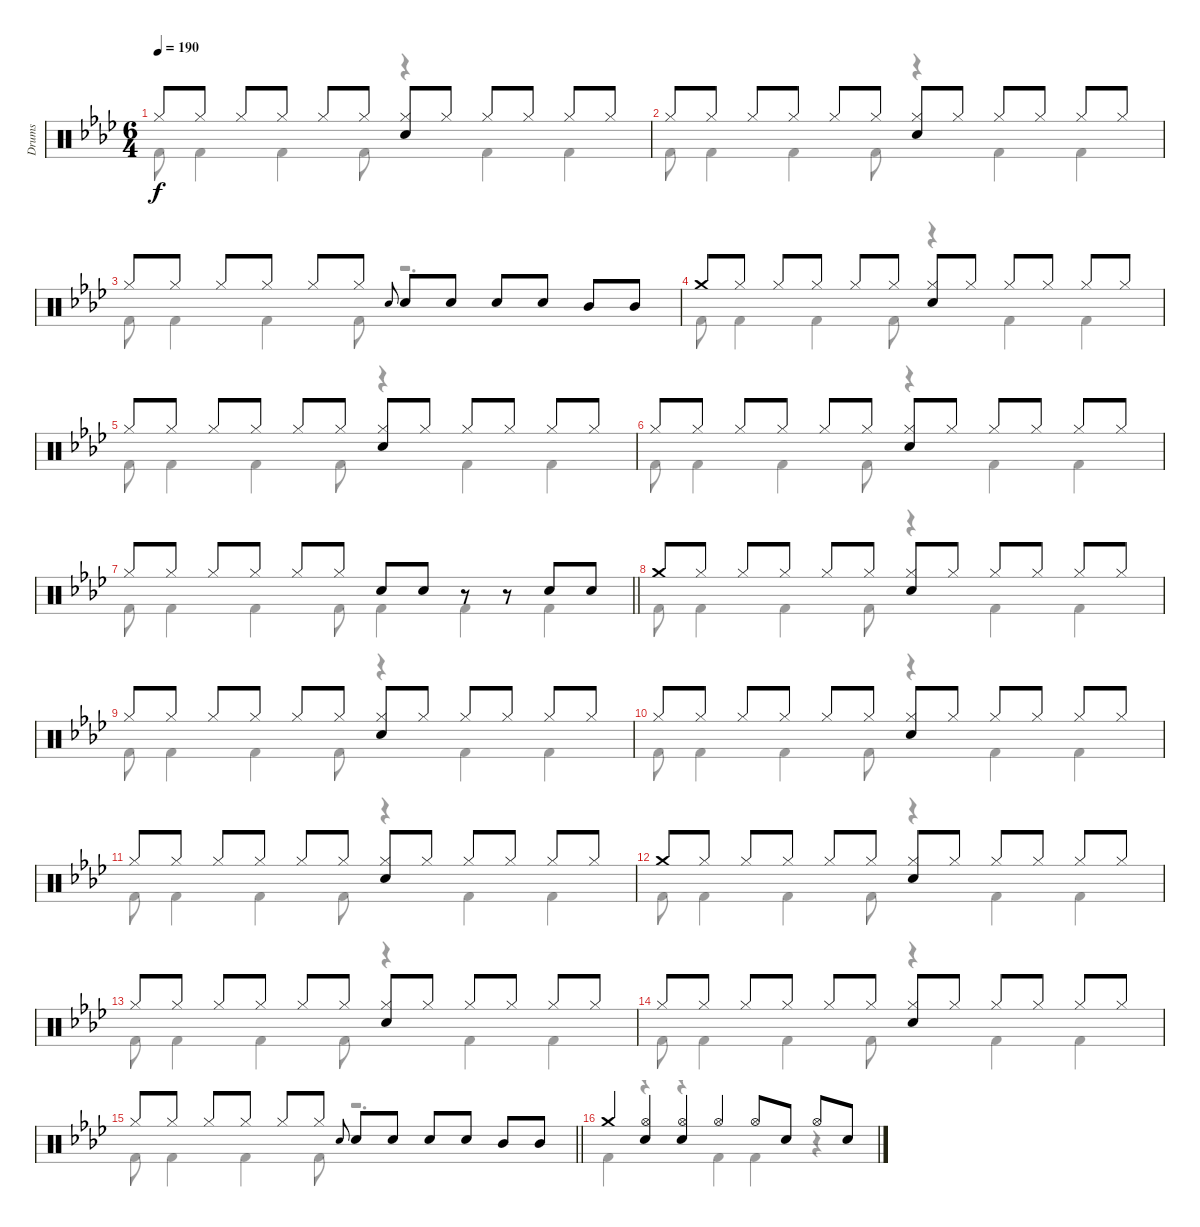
\track ("Drums" "Drums") {instrument percussion}
\staff {score}
\articulation defaults
\voice
\ts (6 4)
\tempo 190
\clef neutral
\ks fminor "Hi-Hat (closed)".8{dy f} "Hi-Hat (closed)".8 "Hi-Hat (closed)".8 "Hi-Hat (closed)".8 "Hi-Hat (closed)".8 "Hi-Hat (closed)".8
("Hi-Hat (closed)" "Snare (hit) 2").8 "Hi-Hat (closed)".8 "Hi-Hat (closed)".8 "Hi-Hat (closed)".8 "Hi-Hat (closed)".8 "Hi-Hat (closed)".8 |
"Hi-Hat (closed)".8 "Hi-Hat (closed)".8 "Hi-Hat (closed)".8 "Hi-Hat (closed)".8 "Hi-Hat (closed)".8 "Hi-Hat (closed)".8 ("Hi-Hat (closed)" "Snare (hit) 2").8 "Hi-Hat (closed)".8 "Hi-Hat (closed)".8 "Hi-Hat (closed)".8 "Hi-Hat (closed)".8 "Hi-Hat (closed)".8 |
"Hi-Hat (closed)".8 "Hi-Hat (closed)".8 "Hi-Hat (closed)".8 "Hi-Hat (closed)".8 "Hi-Hat (closed)".8 "Hi-Hat (closed)".8 "Snare (hit) 2".8{gr onbeat} "Snare (hit) 2".8 "Snare (hit) 2".8 "Snare (hit) 2".8 "Snare (hit) 2".8 "Mid Tom (hit)".8 "Mid Tom (hit)".8 |
"Crash medium (hit)".8 "Hi-Hat (closed)".8 "Hi-Hat (closed)".8 "Hi-Hat (closed)".8 "Hi-Hat (closed)".8 "Hi-Hat (closed)".8 ("Hi-Hat (closed)" "Snare (hit) 2").8 "Hi-Hat (closed)".8 "Hi-Hat (closed)".8 "Hi-Hat (closed)".8 "Hi-Hat (closed)".8 "Hi-Hat (closed)".8 |
"Hi-Hat (closed)".8 "Hi-Hat (closed)".8 "Hi-Hat (closed)".8 "Hi-Hat (closed)".8 "Hi-Hat (closed)".8 "Hi-Hat (closed)".8 ("Hi-Hat (closed)" "Snare (hit) 2").8 "Hi-Hat (closed)".8 "Hi-Hat (closed)".8 "Hi-Hat (closed)".8 "Hi-Hat (closed)".8 "Hi-Hat (closed)".8 |
"Hi-Hat (closed)".8 "Hi-Hat (closed)".8 "Hi-Hat (closed)".8 "Hi-Hat (closed)".8 "Hi-Hat (closed)".8 "Hi-Hat (closed)".8 ("Hi-Hat (closed)" "Snare (hit) 2").8 "Hi-Hat (closed)".8 "Hi-Hat (closed)".8 "Hi-Hat (closed)".8 "Hi-Hat (closed)".8 "Hi-Hat (closed)".8 |
\barLineRight lightlight "Hi-Hat (closed)".8 "Hi-Hat (closed)".8 "Hi-Hat (closed)".8 "Hi-Hat (closed)".8 "Hi-Hat (closed)".8 "Hi-Hat (closed)".8 "Snare (hit) 2".8 "Snare (hit) 2".8
r.8 r.8 "Snare (hit) 2".8 "Snare (hit) 2".8 |
"Crash medium (hit)".8 "Hi-Hat (closed)".8 "Hi-Hat (closed)".8 "Hi-Hat (closed)".8 "Hi-Hat (closed)".8 "Hi-Hat (closed)".8 ("Hi-Hat (closed)" "Snare (hit) 2").8 "Hi-Hat (closed)".8 "Hi-Hat (closed)".8 "Hi-Hat (closed)".8 "Hi-Hat (closed)".8 "Hi-Hat (closed)".8 |
"Hi-Hat (closed)".8 "Hi-Hat (closed)".8 "Hi-Hat (closed)".8 "Hi-Hat (closed)".8 "Hi-Hat (closed)".8 "Hi-Hat (closed)".8 ("Hi-Hat (closed)" "Snare (hit) 2").8 "Hi-Hat (closed)".8 "Hi-Hat (closed)".8 "Hi-Hat (closed)".8 "Hi-Hat (closed)".8 "Hi-Hat (closed)".8 |
"Hi-Hat (closed)".8 "Hi-Hat (closed)".8 "Hi-Hat (closed)".8 "Hi-Hat (closed)".8 "Hi-Hat (closed)".8 "Hi-Hat (closed)".8 ("Hi-Hat (closed)" "Snare (hit) 2").8 "Hi-Hat (closed)".8 "Hi-Hat (closed)".8 "Hi-Hat (closed)".8 "Hi-Hat (closed)".8 "Hi-Hat (closed)".8 |
"Hi-Hat (closed)".8 "Hi-Hat (closed)".8 "Hi-Hat (closed)".8 "Hi-Hat (closed)".8 "Hi-Hat (closed)".8 "Hi-Hat (closed)".8 ("Hi-Hat (closed)" "Snare (hit) 2").8 "Hi-Hat (closed)".8 "Hi-Hat (closed)".8 "Hi-Hat (closed)".8 "Hi-Hat (closed)".8 "Hi-Hat (closed)".8 |
"Crash medium (hit)".8 "Hi-Hat (closed)".8 "Hi-Hat (closed)".8 "Hi-Hat (closed)".8 "Hi-Hat (closed)".8 "Hi-Hat (closed)".8 ("Hi-Hat (closed)" "Snare (hit) 2").8 "Hi-Hat (closed)".8 "Hi-Hat (closed)".8 "Hi-Hat (closed)".8 "Hi-Hat (closed)".8 "Hi-Hat (closed)".8 |
"Hi-Hat (closed)".8 "Hi-Hat (closed)".8 "Hi-Hat (closed)".8 "Hi-Hat (closed)".8 "Hi-Hat (closed)".8 "Hi-Hat (closed)".8 ("Hi-Hat (closed)" "Snare (hit) 2").8 "Hi-Hat (closed)".8 "Hi-Hat (closed)".8 "Hi-Hat (closed)".8 "Hi-Hat (closed)".8 "Hi-Hat (closed)".8 |
"Hi-Hat (closed)".8 "Hi-Hat (closed)".8 "Hi-Hat (closed)".8 "Hi-Hat (closed)".8 "Hi-Hat (closed)".8 "Hi-Hat (closed)".8 ("Hi-Hat (closed)" "Snare (hit) 2").8 "Hi-Hat (closed)".8 "Hi-Hat (closed)".8 "Hi-Hat (closed)".8 "Hi-Hat (closed)".8 "Hi-Hat (closed)".8 |
\barLineRight lightlight "Hi-Hat (closed)".8 "Hi-Hat (closed)".8 "Hi-Hat (closed)".8 "Hi-Hat (closed)".8 "Hi-Hat (closed)".8 "Hi-Hat (closed)".8 "Snare (hit) 2".8{gr onbeat} "Snare (hit) 2".8 "Snare (hit) 2".8 "Snare (hit) 2".8 "Snare (hit) 2".8 "Mid Tom (hit)".8 "Mid Tom (hit)".8
|
"Crash medium (hit)".4 ("Hi-Hat (open)" "Snare (hit) 2").4 ("Hi-Hat (open)" "Snare (hit) 2").4 "Hi-Hat (open)".4 "Hi-Hat (open)".8 "Snare (hit) 2".8 "Hi-Hat (open)".8 "Snare (hit) 2".8
\voice
\clef neutral
\ottava regular
\simile none
\ks fminor "Kick (hit) 2".8{dy f} "Kick (hit) 2".4 "Kick (hit) 2".4 "Kick (hit) 2".8
r.4 "Kick (hit) 2".4 "Kick (hit) 2".4 |
"Kick (hit) 2".8 "Kick (hit) 2".4 "Kick (hit) 2".4 "Kick (hit) 2".8 r.4 "Kick (hit) 2".4 "Kick (hit) 2".4 |
"Kick (hit) 2".8 "Kick (hit) 2".4 "Kick (hit) 2".4 "Kick (hit) 2".8 r.2{d} |
"Kick (hit) 2".8 "Kick (hit) 2".4 "Kick (hit) 2".4 "Kick (hit) 2".8 r.4 "Kick (hit) 2".4 "Kick (hit) 2".4 |
"Kick (hit) 2".8 "Kick (hit) 2".4 "Kick (hit) 2".4 "Kick (hit) 2".8 r.4 "Kick (hit) 2".4 "Kick (hit) 2".4 |
"Kick (hit) 2".8 "Kick (hit) 2".4 "Kick (hit) 2".4 "Kick (hit) 2".8 r.4 "Kick (hit) 2".4 "Kick (hit) 2".4 |
\barLineRight lightlight "Kick (hit) 2".8 "Kick (hit) 2".4 "Kick (hit) 2".4 "Kick (hit) 2".8 "Kick (hit) 2".4 "Kick (hit) 2".4 "Kick (hit) 2".4
|
"Kick (hit) 2".8 "Kick (hit) 2".4 "Kick (hit) 2".4 "Kick (hit) 2".8 r.4 "Kick (hit) 2".4 "Kick (hit) 2".4 |
"Kick (hit) 2".8 "Kick (hit) 2".4 "Kick (hit) 2".4 "Kick (hit) 2".8 r.4 "Kick (hit) 2".4 "Kick (hit) 2".4 |
"Kick (hit) 2".8 "Kick (hit) 2".4 "Kick (hit) 2".4 "Kick (hit) 2".8 r.4 "Kick (hit) 2".4 "Kick (hit) 2".4 |
"Kick (hit) 2".8 "Kick (hit) 2".4 "Kick (hit) 2".4 "Kick (hit) 2".8 r.4 "Kick (hit) 2".4 "Kick (hit) 2".4 |
"Kick (hit) 2".8 "Kick (hit) 2".4 "Kick (hit) 2".4 "Kick (hit) 2".8 r.4 "Kick (hit) 2".4 "Kick (hit) 2".4 |
"Kick (hit) 2".8 "Kick (hit) 2".4 "Kick (hit) 2".4 "Kick (hit) 2".8 r.4 "Kick (hit) 2".4 "Kick (hit) 2".4 |
"Kick (hit) 2".8 "Kick (hit) 2".4 "Kick (hit) 2".4 "Kick (hit) 2".8 r.4 "Kick (hit) 2".4 "Kick (hit) 2".4 |
\barLineRight lightlight "Kick (hit) 2".8 "Kick (hit) 2".4 "Kick (hit) 2".4 "Kick (hit) 2".8
r.2{d} |
"Kick (hit) 2".4 r.4 r.4 "Kick (hit) 2".4 "Kick (hit) 2".4 r.4
